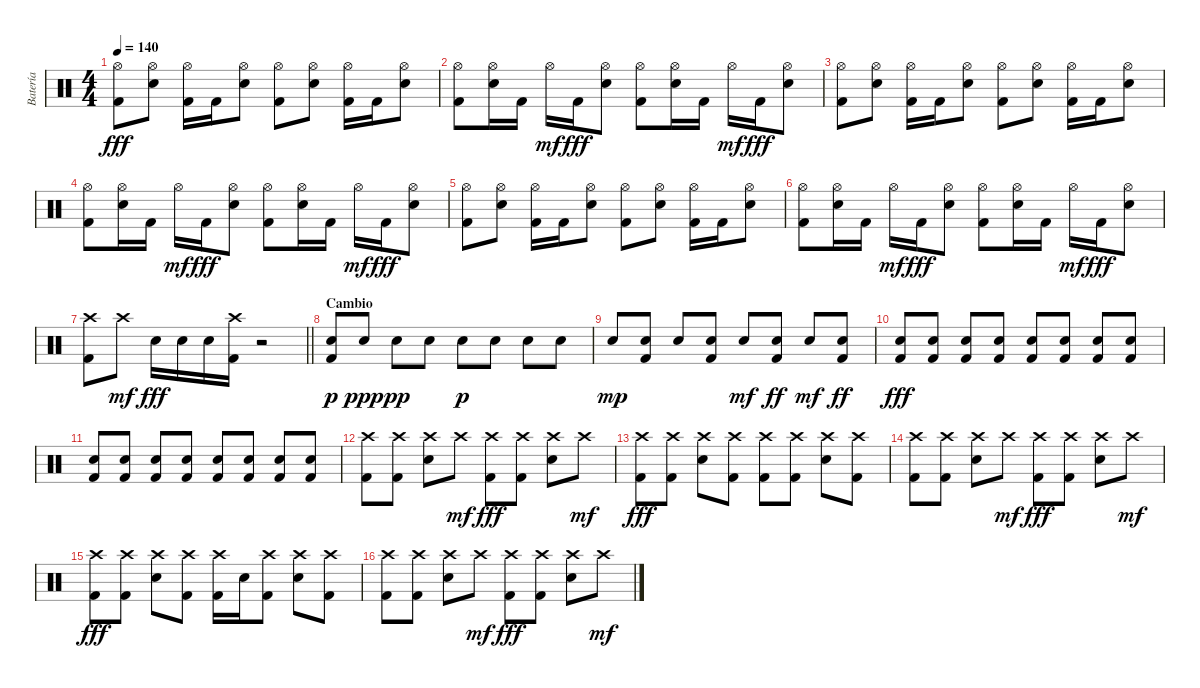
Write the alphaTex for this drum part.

\track ("Batería" "Batería") {instrument percussion}
\staff {score}
\articulation defaults
\ts (4 4)
\tempo 140
\clef neutral
\ks c
("Hi-Hat (open)" "Kick (hit) 2").8{dy fff} ("Hi-Hat (open)" "Electric Snare (hit)").8 ("Hi-Hat (open)" "Kick (hit) 2").16 "Kick (hit) 2".16 ("Hi-Hat (open)" "Electric Snare (hit)").8 ("Hi-Hat (open)" "Kick (hit) 2").8 ("Hi-Hat (open)" "Electric Snare (hit)").8 ("Hi-Hat (open)" "Kick (hit) 2").16 "Kick (hit) 2".16 ("Hi-Hat (open)" "Electric Snare (hit)").8 |
("Hi-Hat (open)" "Kick (hit) 2").8 ("Hi-Hat (open)" "Electric Snare (hit)").16 "Kick (hit) 2".16 "Hi-Hat (open)".16{dy mf} "Kick (hit) 2".16{dy fff} ("Hi-Hat (open)" "Electric Snare (hit)").8 ("Hi-Hat (open)" "Kick (hit) 2").8 ("Hi-Hat (open)" "Electric Snare (hit)").16 "Kick (hit) 2".16 "Hi-Hat (open)".16{dy mf} "Kick (hit) 2".16{dy fff} ("Hi-Hat (open)" "Electric Snare (hit)").8 |
("Hi-Hat (open)" "Kick (hit) 2").8 ("Hi-Hat (open)" "Electric Snare (hit)").8 ("Hi-Hat (open)" "Kick (hit) 2").16 "Kick (hit) 2".16 ("Hi-Hat (open)" "Electric Snare (hit)").8 ("Hi-Hat (open)" "Kick (hit) 2").8 ("Hi-Hat (open)" "Electric Snare (hit)").8 ("Hi-Hat (open)" "Kick (hit) 2").16 "Kick (hit) 2".16 ("Hi-Hat (open)" "Electric Snare (hit)").8 |
("Hi-Hat (open)" "Kick (hit) 2").8 ("Hi-Hat (open)" "Electric Snare (hit)").16 "Kick (hit) 2".16 "Hi-Hat (open)".16{dy mf} "Kick (hit) 2".16{dy fff} ("Hi-Hat (open)" "Electric Snare (hit)").8 ("Hi-Hat (open)" "Kick (hit) 2").8 ("Hi-Hat (open)" "Electric Snare (hit)").16 "Kick (hit) 2".16 "Hi-Hat (open)".16{dy mf} "Kick (hit) 2".16{dy fff} ("Hi-Hat (open)" "Electric Snare (hit)").8 |
("Hi-Hat (open)" "Kick (hit) 2").8 ("Hi-Hat (open)" "Electric Snare (hit)").8 ("Hi-Hat (open)" "Kick (hit) 2").16 "Kick (hit) 2".16 ("Hi-Hat (open)" "Electric Snare (hit)").8 ("Hi-Hat (open)" "Kick (hit) 2").8 ("Hi-Hat (open)" "Electric Snare (hit)").8 ("Hi-Hat (open)" "Kick (hit) 2").16 "Kick (hit) 2".16 ("Hi-Hat (open)" "Electric Snare (hit)").8 |
("Hi-Hat (open)" "Kick (hit) 2").8 ("Hi-Hat (open)" "Electric Snare (hit)").16 "Kick (hit) 2".16 "Hi-Hat (open)".16{dy mf} "Kick (hit) 2".16{dy fff} ("Hi-Hat (open)" "Electric Snare (hit)").8 ("Hi-Hat (open)" "Kick (hit) 2").8 ("Hi-Hat (open)" "Electric Snare (hit)").16 "Kick (hit) 2".16 "Hi-Hat (open)".16{dy mf} "Kick (hit) 2".16{dy fff} ("Hi-Hat (open)" "Electric Snare (hit)").8 |
\barLineRight lightlight
("Crash high (hit)" "Kick (hit) 2").8 "Crash high (hit)".8{dy mf} "Electric Snare (hit)".16{dy fff} "Electric Snare (hit)".16 "Electric Snare (hit)".16 ("Crash high (hit)" "Kick (hit) 2").16 r.2 |
\section ("" "Cambio")
("Electric Snare (hit)" "Kick (hit) 2").8{dy p} "Electric Snare (hit)".8{dy ppp} "Electric Snare (hit)".8{dy pp} "Electric Snare (hit)".8 "Electric Snare (hit)".8{dy p} "Electric Snare (hit)".8 "Electric Snare (hit)".8 "Electric Snare (hit)".8 |
"Electric Snare (hit)".8{dy mp} ("Electric Snare (hit)" "Kick (hit) 2").8 "Electric Snare (hit)".8 ("Electric Snare (hit)" "Kick (hit) 2").8 "Electric Snare (hit)".8{dy mf} ("Electric Snare (hit)" "Kick (hit) 2").8{dy ff} "Electric Snare (hit)".8{dy mf} ("Electric Snare (hit)" "Kick (hit) 2").8{dy ff} |
("Electric Snare (hit)" "Kick (hit) 2").8{dy fff} ("Electric Snare (hit)" "Kick (hit) 2").8 ("Electric Snare (hit)" "Kick (hit) 2").8 ("Electric Snare (hit)" "Kick (hit) 2").8 ("Electric Snare (hit)" "Kick (hit) 2").8 ("Electric Snare (hit)" "Kick (hit) 2").8 ("Electric Snare (hit)" "Kick (hit) 2").8 ("Electric Snare (hit)" "Kick (hit) 2").8 |
("Electric Snare (hit)" "Kick (hit) 2").8 ("Electric Snare (hit)" "Kick (hit) 2").8 ("Electric Snare (hit)" "Kick (hit) 2").8 ("Electric Snare (hit)" "Kick (hit) 2").8 ("Electric Snare (hit)" "Kick (hit) 2").8 ("Electric Snare (hit)" "Kick (hit) 2").8 ("Electric Snare (hit)" "Kick (hit) 2").8 ("Electric Snare (hit)" "Kick (hit) 2").8 |
("Crash high (hit)" "Kick (hit) 2").8 ("Crash high (hit)" "Kick (hit) 2").8 ("Crash high (hit)" "Electric Snare (hit)").8 "Crash high (hit)".8{dy mf} ("Crash high (hit)" "Kick (hit) 2").8{dy fff} ("Crash high (hit)" "Kick (hit) 2").8 ("Crash high (hit)" "Electric Snare (hit)").8 "Crash high (hit)".8{dy mf} |
("Crash high (hit)" "Kick (hit) 2").8{dy fff} ("Crash high (hit)" "Kick (hit) 2").8 ("Crash high (hit)" "Electric Snare (hit)").8 ("Crash high (hit)" "Kick (hit) 2").8 ("Crash high (hit)" "Kick (hit) 2").8 ("Crash high (hit)" "Kick (hit) 2").8 ("Crash high (hit)" "Electric Snare (hit)").8 ("Crash high (hit)" "Kick (hit) 2").8 |
("Crash high (hit)" "Kick (hit) 2").8 ("Crash high (hit)" "Kick (hit) 2").8 ("Crash high (hit)" "Electric Snare (hit)").8 "Crash high (hit)".8{dy mf} ("Crash high (hit)" "Kick (hit) 2").8{dy fff} ("Crash high (hit)" "Kick (hit) 2").8 ("Crash high (hit)" "Electric Snare (hit)").8 "Crash high (hit)".8{dy mf} |
("Crash high (hit)" "Kick (hit) 2").8{dy fff} ("Crash high (hit)" "Kick (hit) 2").8 ("Crash high (hit)" "Electric Snare (hit)").8 ("Crash high (hit)" "Kick (hit) 2").8 ("Crash high (hit)" "Kick (hit) 2").16 "Electric Snare (hit)".16 ("Crash high (hit)" "Kick (hit) 2").8 ("Crash high (hit)" "Electric Snare (hit)").8 ("Crash high (hit)" "Kick (hit) 2").8 |
("Crash high (hit)" "Kick (hit) 2").8 ("Crash high (hit)" "Kick (hit) 2").8 ("Crash high (hit)" "Electric Snare (hit)").8 "Crash high (hit)".8{dy mf} ("Crash high (hit)" "Kick (hit) 2").8{dy fff} ("Crash high (hit)" "Kick (hit) 2").8 ("Crash high (hit)" "Electric Snare (hit)").8 "Crash high (hit)".8{dy mf}
